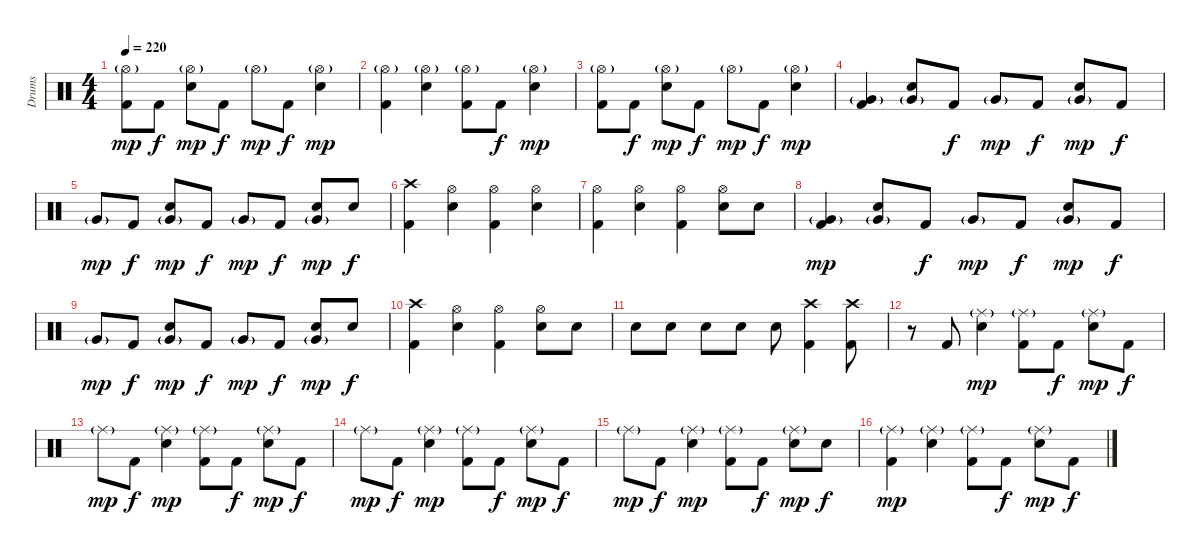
\track ("Drums" "Drums") {instrument percussion}
\staff {score}
\articulation defaults
\ts (4 4)
\tempo 220
\clef neutral
\ks c
("Hi-Hat (open)"{g} "Kick (hit) 2").8{dy mp} "Kick (hit) 2".8{dy f} ("Hi-Hat (open)"{g} "Snare (hit) 2").8{dy mp} "Kick (hit) 2".8{dy f} "Hi-Hat (open)"{g}.8{dy mp} "Kick (hit) 2".8{dy f} ("Hi-Hat (open)"{g} "Snare (hit) 2").4{dy mp} |
("Hi-Hat (open)"{g} "Kick (hit) 2").4 ("Hi-Hat (open)"{g} "Snare (hit) 2").4 ("Hi-Hat (open)"{g} "Kick (hit) 2").8 "Kick (hit) 2".8{dy f} ("Hi-Hat (open)"{g} "Snare (hit) 2").4{dy mp} |
("Hi-Hat (open)"{g} "Kick (hit) 2").8 "Kick (hit) 2".8{dy f} ("Hi-Hat (open)"{g} "Snare (hit) 2").8{dy mp} "Kick (hit) 2".8{dy f} "Hi-Hat (open)"{g}.8{dy mp} "Kick (hit) 2".8{dy f} ("Hi-Hat (open)"{g} "Snare (hit) 2").4{dy mp} |
("Very Low Tom (hit)"{g} "Kick (hit) 2").4 ("Snare (hit) 2" "Very Low Tom (hit)"{g}).8 "Kick (hit) 2".8{dy f} "Very Low Tom (hit)"{g}.8{dy mp} "Kick (hit) 2".8{dy f} ("Snare (hit) 2" "Very Low Tom (hit)"{g}).8{dy mp} "Kick (hit) 2".8{dy f} |
"Very Low Tom (hit)"{g}.8{dy mp} "Kick (hit) 2".8{dy f} ("Snare (hit) 2" "Very Low Tom (hit)"{g}).8{dy mp} "Kick (hit) 2".8{dy f} "Very Low Tom (hit)"{g}.8{dy mp} "Kick (hit) 2".8{dy f} ("Snare (hit) 2" "Very Low Tom (hit)"{g}).8{dy mp} "Snare (hit) 2".8{dy f} |
("Crash high (hit)" "Kick (hit) 2").4 ("Hi-Hat (open)" "Snare (hit) 2").4 ("Hi-Hat (open)" "Kick (hit) 2").4 ("Hi-Hat (open)" "Snare (hit) 2").4 |
("Hi-Hat (open)" "Kick (hit) 2").4 ("Hi-Hat (open)" "Snare (hit) 2").4 ("Hi-Hat (open)" "Kick (hit) 2").4 ("Hi-Hat (open)" "Snare (hit) 2").8 "Snare (hit) 2".8 |
("Very Low Tom (hit)"{g} "Kick (hit) 2").4{dy mp} ("Snare (hit) 2" "Very Low Tom (hit)"{g}).8 "Kick (hit) 2".8{dy f} "Very Low Tom (hit)"{g}.8{dy mp} "Kick (hit) 2".8{dy f} ("Snare (hit) 2" "Very Low Tom (hit)"{g}).8{dy mp} "Kick (hit) 2".8{dy f} |
"Very Low Tom (hit)"{g}.8{dy mp} "Kick (hit) 2".8{dy f} ("Snare (hit) 2" "Very Low Tom (hit)"{g}).8{dy mp} "Kick (hit) 2".8{dy f} "Very Low Tom (hit)"{g}.8{dy mp} "Kick (hit) 2".8{dy f} ("Snare (hit) 2" "Very Low Tom (hit)"{g}).8{dy mp} "Snare (hit) 2".8{dy f} |
("Crash high (hit)" "Kick (hit) 2").4 ("Hi-Hat (open)" "Snare (hit) 2").4 ("Hi-Hat (open)" "Kick (hit) 2").4 ("Hi-Hat (open)" "Snare (hit) 2").8 "Snare (hit) 2".8 |
"Snare (hit) 2".8 "Snare (hit) 2".8 "Snare (hit) 2".8 "Snare (hit) 2".8 "Snare (hit) 2".8 ("Crash high (hit)" "Kick (hit) 2").4 ("Crash high (hit)" "Kick (hit) 2").8 |
r.8 "Kick (hit) 2".8 ("Ride (middle)"{g} "Snare (hit) 2").4{dy mp} ("Ride (middle)"{g} "Kick (hit) 2").8 "Kick (hit) 2".8{dy f} ("Ride (middle)"{g} "Snare (hit) 2").8{dy mp} "Kick (hit) 2".8{dy f} |
"Ride (middle)"{g}.8{dy mp} "Kick (hit) 2".8{dy f} ("Ride (middle)"{g} "Snare (hit) 2").4{dy mp} ("Ride (middle)"{g} "Kick (hit) 2").8 "Kick (hit) 2".8{dy f} ("Ride (middle)"{g} "Snare (hit) 2").8{dy mp} "Kick (hit) 2".8{dy f} |
"Ride (middle)"{g}.8{dy mp} "Kick (hit) 2".8{dy f} ("Ride (middle)"{g} "Snare (hit) 2").4{dy mp} ("Ride (middle)"{g} "Kick (hit) 2").8 "Kick (hit) 2".8{dy f} ("Ride (middle)"{g} "Snare (hit) 2").8{dy mp} "Kick (hit) 2".8{dy f} |
"Ride (middle)"{g}.8{dy mp} "Kick (hit) 2".8{dy f} ("Ride (middle)"{g} "Snare (hit) 2").4{dy mp} ("Ride (middle)"{g} "Kick (hit) 2").8 "Kick (hit) 2".8{dy f} ("Ride (middle)"{g} "Snare (hit) 2").8{dy mp} "Snare (hit) 2".8{dy f} |
("Ride (middle)"{g} "Kick (hit) 2").4{dy mp} ("Ride (middle)"{g} "Snare (hit) 2").4 ("Ride (middle)"{g} "Kick (hit) 2").8 "Kick (hit) 2".8{dy f} ("Ride (middle)"{g} "Snare (hit) 2").8{dy mp} "Kick (hit) 2".8{dy f}
